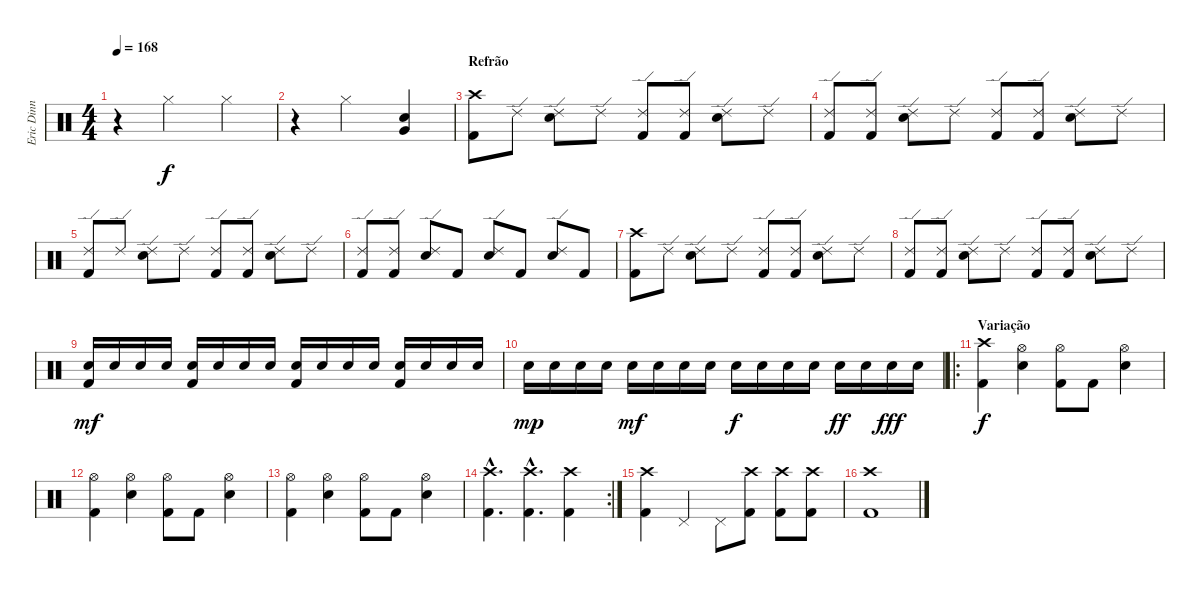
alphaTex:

\track ("Eric Dinn" "Eric Dinn") {instrument percussion}
\staff {score}
\articulation defaults
\ts (4 4)
\tempo 168
\clef neutral
\ks c
r.4{dy f} "Hi-Hat (closed)".2 "Hi-Hat (closed)".4 |
r.4 "Hi-Hat (closed)".2 ("Very Low Tom (hit)" "Snare (hit) 2").4 |
\section ("" "Refrão")
("Crash high (hit)" "Kick (hit) 2").8 "Ride (edge) 2".8 ("Ride (edge) 2" "Snare (hit) 2").8 "Ride (edge) 2".8 ("Ride (edge) 2" "Kick (hit) 2").8 ("Ride (edge) 2" "Kick (hit) 2").8 ("Ride (edge) 2" "Snare (hit) 2").8 "Ride (edge) 2".8 |
("Ride (edge) 2" "Kick (hit) 2").8 ("Ride (edge) 2" "Kick (hit) 2").8 ("Ride (edge) 2" "Snare (hit) 2").8 "Ride (edge) 2".8 ("Ride (edge) 2" "Kick (hit) 2").8 ("Ride (edge) 2" "Kick (hit) 2").8 ("Ride (edge) 2" "Snare (hit) 2").8 "Ride (edge) 2".8 |
("Ride (edge) 2" "Kick (hit) 2").8 "Ride (edge) 2".8 ("Ride (edge) 2" "Snare (hit) 2").8 "Ride (edge) 2".8 ("Ride (edge) 2" "Kick (hit) 2").8 ("Ride (edge) 2" "Kick (hit) 2").8 ("Ride (edge) 2" "Snare (hit) 2").8 "Ride (edge) 2".8 |
("Ride (edge) 2" "Kick (hit) 2").8 ("Ride (edge) 2" "Kick (hit) 2").8 ("Ride (edge) 2" "Snare (hit) 2").8 "Kick (hit) 2".8 ("Ride (edge) 2" "Snare (hit) 2").8 "Kick (hit) 2".8 ("Ride (edge) 2" "Snare (hit) 2").8 "Kick (hit) 2".8 |
("Crash high (hit)" "Kick (hit) 2").8 "Ride (edge) 2".8 ("Ride (edge) 2" "Snare (hit) 2").8 "Ride (edge) 2".8 ("Ride (edge) 2" "Kick (hit) 2").8 ("Ride (edge) 2" "Kick (hit) 2").8 ("Ride (edge) 2" "Snare (hit) 2").8 "Ride (edge) 2".8 |
("Ride (edge) 2" "Kick (hit) 2").8 ("Ride (edge) 2" "Kick (hit) 2").8 ("Ride (edge) 2" "Snare (hit) 2").8 "Ride (edge) 2".8 ("Ride (edge) 2" "Kick (hit) 2").8 ("Ride (edge) 2" "Kick (hit) 2").8 ("Ride (edge) 2" "Snare (hit) 2").8 "Ride (edge) 2".8 |
("Snare (hit) 2" "Kick (hit) 2").16{dy mf} "Snare (hit) 2".16 "Snare (hit) 2".16 "Snare (hit) 2".16 ("Snare (hit) 2" "Kick (hit) 2").16 "Snare (hit) 2".16 "Snare (hit) 2".16 "Snare (hit) 2".16 ("Snare (hit) 2" "Kick (hit) 2").16 "Snare (hit) 2".16 "Snare (hit) 2".16 "Snare (hit) 2".16 ("Snare (hit) 2" "Kick (hit) 2").16 "Snare (hit) 2".16 "Snare (hit) 2".16 "Snare (hit) 2".16 |
"Snare (hit) 2".16{dy mp} "Snare (hit) 2".16 "Snare (hit) 2".16 "Snare (hit) 2".16 "Snare (hit) 2".16{dy mf} "Snare (hit) 2".16 "Snare (hit) 2".16 "Snare (hit) 2".16 "Snare (hit) 2".16{dy f} "Snare (hit) 2".16 "Snare (hit) 2".16 "Snare (hit) 2".16 "Snare (hit) 2".16{dy ff} "Snare (hit) 2".16 "Snare (hit) 2".16{dy fff} "Snare (hit) 2".16 |
\ro
\section ("" "Variação")
("Crash high (hit)" "Kick (hit) 2").4{dy f} ("Hi-Hat (open)" "Snare (hit) 2").4 ("Hi-Hat (open)" "Kick (hit) 2").8 "Kick (hit) 2".8 ("Hi-Hat (open)" "Snare (hit) 2").4 |
("Hi-Hat (open)" "Kick (hit) 2").4 ("Hi-Hat (open)" "Snare (hit) 2").4 ("Hi-Hat (open)" "Kick (hit) 2").8 "Kick (hit) 2".8 ("Hi-Hat (open)" "Snare (hit) 2").4 |
("Hi-Hat (open)" "Kick (hit) 2").4 ("Hi-Hat (open)" "Snare (hit) 2").4 ("Hi-Hat (open)" "Kick (hit) 2").8 "Kick (hit) 2".8 ("Hi-Hat (open)" "Snare (hit) 2").4 |
\rc 2
("Crash high (hit)"{hac} "Kick (hit) 2"{hac}).4{d} ("Crash high (hit)"{hac} "Kick (hit) 2"{hac}).4{d} ("Crash high (hit)" "Kick (hit) 2").4 |
("Crash high (hit)" "Kick (hit) 2").4 "Pedal Hi-Hat (hit)".4 "Pedal Hi-Hat (hit)".8 ("Crash high (hit)" "Kick (hit) 2").8 ("Crash high (hit)" "Kick (hit) 2").8 ("Crash high (hit)" "Kick (hit) 2").8 |
("Crash high (hit)" "Kick (hit) 2").1
